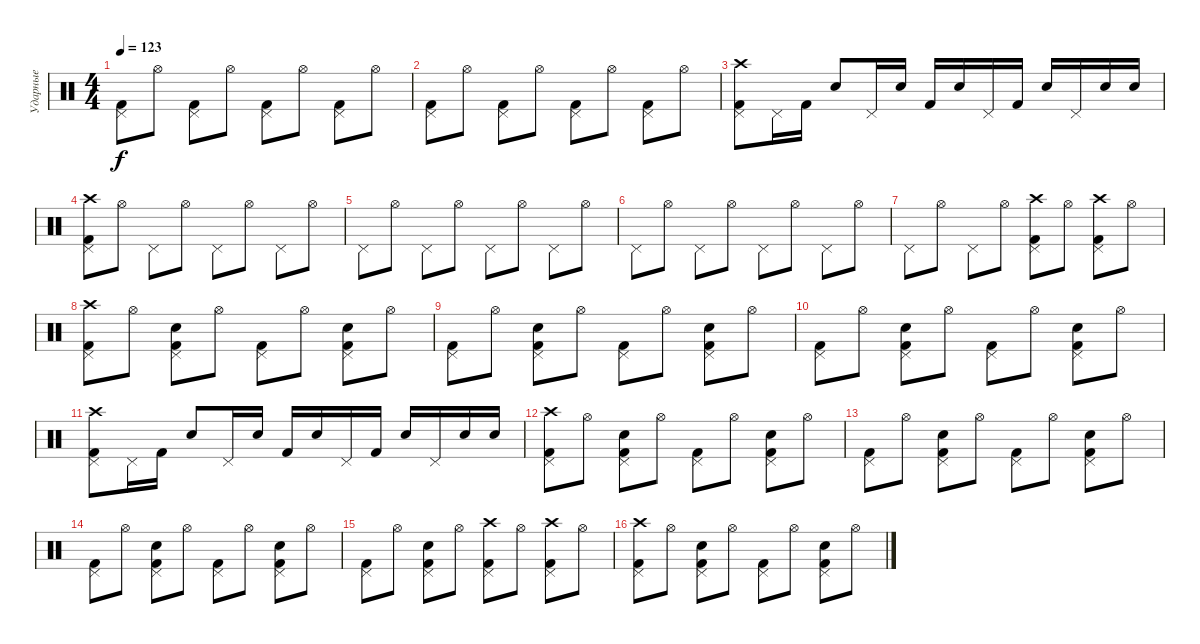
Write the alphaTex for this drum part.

\track ("Ударные" "Ударные") {instrument percussion}
\staff {score}
\articulation defaults
\ts (4 4)
\tempo 123
\clef neutral
\ks c
("Kick (hit) 2" "Pedal Hi-Hat (hit)").8{dy f} "Hi-Hat (open)".8 ("Kick (hit) 2" "Pedal Hi-Hat (hit)").8 "Hi-Hat (open)".8 ("Kick (hit) 2" "Pedal Hi-Hat (hit)").8 "Hi-Hat (open)".8 ("Kick (hit) 2" "Pedal Hi-Hat (hit)").8 "Hi-Hat (open)".8 |
("Kick (hit) 2" "Pedal Hi-Hat (hit)").8 "Hi-Hat (open)".8 ("Kick (hit) 2" "Pedal Hi-Hat (hit)").8 "Hi-Hat (open)".8 ("Kick (hit) 2" "Pedal Hi-Hat (hit)").8 "Hi-Hat (open)".8 ("Kick (hit) 2" "Pedal Hi-Hat (hit)").8 "Hi-Hat (open)".8 |
("Kick (hit) 2" "Pedal Hi-Hat (hit)" "Crash high (hit)").8 "Pedal Hi-Hat (hit)".16 "Kick (hit) 2".16 "Snare (hit) 2".8 "Pedal Hi-Hat (hit)".16 "Snare (hit) 2".16 "Kick (hit) 2".16 "Snare (hit) 2".16 "Pedal Hi-Hat (hit)".16 "Kick (hit) 2".16 "Snare (hit) 2".16 "Pedal Hi-Hat (hit)".16 "Snare (hit) 2".16 "Snare (hit) 2".16 |
("Kick (hit) 2" "Pedal Hi-Hat (hit)" "Crash high (hit)").8 "Hi-Hat (open)".8 "Pedal Hi-Hat (hit)".8 "Hi-Hat (open)".8 "Pedal Hi-Hat (hit)".8 "Hi-Hat (open)".8 "Pedal Hi-Hat (hit)".8 "Hi-Hat (open)".8 |
"Pedal Hi-Hat (hit)".8 "Hi-Hat (open)".8 "Pedal Hi-Hat (hit)".8 "Hi-Hat (open)".8 "Pedal Hi-Hat (hit)".8 "Hi-Hat (open)".8 "Pedal Hi-Hat (hit)".8 "Hi-Hat (open)".8 |
"Pedal Hi-Hat (hit)".8 "Hi-Hat (open)".8 "Pedal Hi-Hat (hit)".8 "Hi-Hat (open)".8 "Pedal Hi-Hat (hit)".8 "Hi-Hat (open)".8 "Pedal Hi-Hat (hit)".8 "Hi-Hat (open)".8 |
"Pedal Hi-Hat (hit)".8 "Hi-Hat (open)".8 "Pedal Hi-Hat (hit)".8 "Hi-Hat (open)".8 ("Kick (hit) 2" "Pedal Hi-Hat (hit)" "Crash high (hit)").8 "Hi-Hat (open)".8 ("Kick (hit) 2" "Pedal Hi-Hat (hit)" "Crash high (hit)").8 "Hi-Hat (open)".8 |
("Kick (hit) 2" "Pedal Hi-Hat (hit)" "Crash high (hit)").8 "Hi-Hat (open)".8 ("Kick (hit) 2" "Pedal Hi-Hat (hit)" "Hand Clap (hit)").8 "Hi-Hat (open)".8 ("Kick (hit) 2" "Pedal Hi-Hat (hit)").8 "Hi-Hat (open)".8 ("Kick (hit) 2" "Pedal Hi-Hat (hit)" "Hand Clap (hit)").8 "Hi-Hat (open)".8 |
("Kick (hit) 2" "Pedal Hi-Hat (hit)").8 "Hi-Hat (open)".8 ("Kick (hit) 2" "Pedal Hi-Hat (hit)" "Hand Clap (hit)").8 "Hi-Hat (open)".8 ("Kick (hit) 2" "Pedal Hi-Hat (hit)").8 "Hi-Hat (open)".8 ("Kick (hit) 2" "Pedal Hi-Hat (hit)" "Hand Clap (hit)").8 "Hi-Hat (open)".8 |
("Kick (hit) 2" "Pedal Hi-Hat (hit)").8 "Hi-Hat (open)".8 ("Kick (hit) 2" "Pedal Hi-Hat (hit)" "Hand Clap (hit)").8 "Hi-Hat (open)".8 ("Kick (hit) 2" "Pedal Hi-Hat (hit)").8 "Hi-Hat (open)".8 ("Kick (hit) 2" "Pedal Hi-Hat (hit)" "Hand Clap (hit)").8 "Hi-Hat (open)".8 |
("Kick (hit) 2" "Pedal Hi-Hat (hit)" "Crash high (hit)").8 "Pedal Hi-Hat (hit)".16 "Kick (hit) 2".16 "Snare (hit) 2".8 "Pedal Hi-Hat (hit)".16 "Snare (hit) 2".16 "Kick (hit) 2".16 "Snare (hit) 2".16 "Pedal Hi-Hat (hit)".16 "Kick (hit) 2".16 "Snare (hit) 2".16 "Pedal Hi-Hat (hit)".16 "Snare (hit) 2".16 "Snare (hit) 2".16 |
("Kick (hit) 2" "Pedal Hi-Hat (hit)" "Crash high (hit)").8 "Hi-Hat (open)".8 ("Kick (hit) 2" "Pedal Hi-Hat (hit)" "Hand Clap (hit)").8 "Hi-Hat (open)".8 ("Kick (hit) 2" "Pedal Hi-Hat (hit)").8 "Hi-Hat (open)".8 ("Kick (hit) 2" "Pedal Hi-Hat (hit)" "Hand Clap (hit)").8 "Hi-Hat (open)".8 |
("Kick (hit) 2" "Pedal Hi-Hat (hit)").8 "Hi-Hat (open)".8 ("Kick (hit) 2" "Pedal Hi-Hat (hit)" "Hand Clap (hit)").8 "Hi-Hat (open)".8 ("Kick (hit) 2" "Pedal Hi-Hat (hit)").8 "Hi-Hat (open)".8 ("Kick (hit) 2" "Pedal Hi-Hat (hit)" "Hand Clap (hit)").8 "Hi-Hat (open)".8 |
("Kick (hit) 2" "Pedal Hi-Hat (hit)").8 "Hi-Hat (open)".8 ("Kick (hit) 2" "Pedal Hi-Hat (hit)" "Hand Clap (hit)").8 "Hi-Hat (open)".8 ("Kick (hit) 2" "Pedal Hi-Hat (hit)").8 "Hi-Hat (open)".8 ("Kick (hit) 2" "Pedal Hi-Hat (hit)" "Hand Clap (hit)").8 "Hi-Hat (open)".8 |
("Kick (hit) 2" "Pedal Hi-Hat (hit)").8 "Hi-Hat (open)".8 ("Kick (hit) 2" "Pedal Hi-Hat (hit)" "Hand Clap (hit)").8 "Hi-Hat (open)".8 ("Kick (hit) 2" "Pedal Hi-Hat (hit)" "Crash high (hit)").8 "Hi-Hat (open)".8 ("Kick (hit) 2" "Pedal Hi-Hat (hit)" "Crash high (hit)").8 "Hi-Hat (open)".8 |
("Kick (hit) 2" "Pedal Hi-Hat (hit)" "Crash high (hit)").8 "Hi-Hat (open)".8 ("Kick (hit) 2" "Pedal Hi-Hat (hit)" "Hand Clap (hit)").8 "Hi-Hat (open)".8 ("Kick (hit) 2" "Pedal Hi-Hat (hit)").8 "Hi-Hat (open)".8 ("Kick (hit) 2" "Pedal Hi-Hat (hit)" "Hand Clap (hit)").8 "Hi-Hat (open)".8
